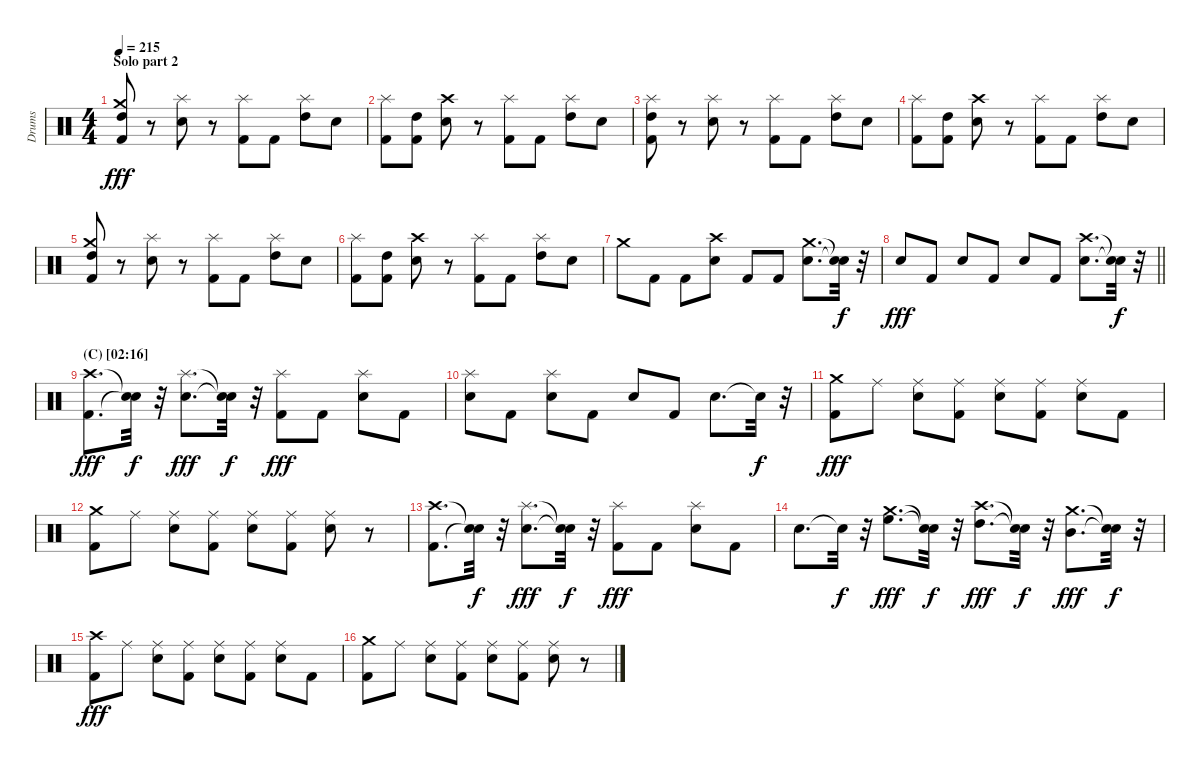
\track ("Drums" "Drums") {instrument percussion}
\staff {score}
\articulation defaults
\ts (4 4)
\section ("" "Solo part 2")
\tempo 215
\clef neutral
\ks c
("High Tom (hit)" "Crash medium (hit)" "Kick (hit) 2").8{dy fff} r.8 ("Splash (hit)" "Electric Snare (hit)").8 r.8 ("Splash (hit)" "Kick (hit) 2").8 "Kick (hit) 2".8 ("Splash (hit)" "High Tom (hit)").8 "Electric Snare (hit)".8 |
("Kick (hit) 2" "Splash (hit)").8 ("Kick (hit) 2" "High Tom (hit)").8 ("Crash high (hit)" "Electric Snare (hit)").8 r.8 ("Kick (hit) 2" "Splash (hit)").8 "Kick (hit) 2".8 ("Splash (hit)" "High Tom (hit)").8 "Electric Snare (hit)".8 |
("High Tom (hit)" "Splash (hit)" "Kick (hit) 2").8 r.8 ("Electric Snare (hit)" "Splash (hit)").8 r.8 ("Kick (hit) 2" "Splash (hit)").8 "Kick (hit) 2".8 ("Splash (hit)" "High Tom (hit)").8 "Electric Snare (hit)".8 |
("Splash (hit)" "Kick (hit) 2").8 ("Kick (hit) 2" "High Tom (hit)").8 ("Crash high (hit)" "Electric Snare (hit)").8 r.8 ("Splash (hit)" "Kick (hit) 2").8 "Kick (hit) 2".8 ("Splash (hit)" "High Tom (hit)").8 "Electric Snare (hit)".8 |
("Kick (hit) 2" "High Tom (hit)" "Crash medium (hit)").8 r.8 ("Splash (hit)" "Electric Snare (hit)").8 r.8 ("Splash (hit)" "Kick (hit) 2").8 "Kick (hit) 2".8 ("Splash (hit)" "High Tom (hit)").8 "Electric Snare (hit)".8 |
("Splash (hit)" "Kick (hit) 2").8 ("Kick (hit) 2" "High Tom (hit)").8 ("Crash high (hit)" "Electric Snare (hit)").8 r.8 ("Splash (hit)" "Kick (hit) 2").8 "Kick (hit) 2".8 ("High Tom (hit)" "Splash (hit)").8 "Electric Snare (hit)".8 |
"Crash medium (hit)".8 "Kick (hit) 2".8 "Kick (hit) 2".8 ("Crash high (hit)" "Electric Snare (hit)").8 "Kick (hit) 2".8 "Kick (hit) 2".8 ("Crash medium (hit)" "Electric Snare (hit)").8{d} ("Snare (hit)"{t} "Snare (hit)"{t}).32{dy f} r.32 |
\barLineRight lightlight "Snare (hit) 2".8{dy fff} "Kick (hit) 2".8 "Snare (hit) 2".8 "Kick (hit) 2".8 "Snare (hit) 2".8 "Kick (hit) 2".8
("Electric Snare (hit)" "Crash high (hit)").8{d} ("Snare (hit)"{t} "Snare (hit)"{t}).32{dy f} r.32 |
\section ("" "(C) [02:16]")
("Crash high (hit)" "Kick (hit) 2").8{d dy fff} ("Snare (hit)"{t} "Snare (hit)"{t}).32{dy f} r.32 ("Electric Snare (hit)" "Splash (hit)").8{d dy fff} ("Snare (hit)"{t} "Snare (hit)"{t}).32{dy f} r.32 ("Kick (hit) 2" "Splash (hit)").8{dy fff} "Kick (hit) 2".8 ("Electric Snare (hit)" "Splash (hit)").8 "Kick (hit) 2".8 |
("Splash (hit)" "Electric Snare (hit)").8 "Kick (hit) 2".8 ("Electric Snare (hit)" "Splash (hit)").8 "Kick (hit) 2".8 "Electric Snare (hit)".8 "Kick (hit) 2".8 "Electric Snare (hit)".8{d} "Snare (hit)"{t}.32{dy f} r.32 |
("Kick (hit) 2" "Crash medium (hit)").8{dy fff} "Ride (middle)".8 ("Electric Snare (hit)" "Ride (middle)").8 ("Ride (middle)" "Kick (hit) 2").8 ("Ride (middle)" "Electric Snare (hit)").8 ("Ride (middle)" "Kick (hit) 2").8 ("Electric Snare (hit)" "Ride (middle)").8 "Kick (hit) 2".8 |
("Crash medium (hit)" "Kick (hit) 2").8 "Ride (middle)".8 ("Electric Snare (hit)" "Ride (middle)").8 ("Kick (hit) 2" "Ride (middle)").8 ("Electric Snare (hit)" "Ride (middle)").8 ("Kick (hit) 2" "Ride (middle)").8 ("Ride (middle)" "Electric Snare (hit)").8 r.8 |
("Kick (hit) 2" "Crash high (hit)").8{d} ("Snare (hit)"{t} "Snare (hit)"{t}).32{dy f} r.32 ("Electric Snare (hit)" "Splash (hit)").8{d dy fff} ("Snare (hit)"{t} "Snare (hit)"{t}).32{dy f} r.32 ("Splash (hit)" "Kick (hit) 2").8{dy fff} "Kick (hit) 2".8 ("Electric Snare (hit)" "Splash (hit)").8 "Kick (hit) 2".8 |
"Electric Snare (hit)".8{d} "Snare (hit)"{t}.32{dy f} r.32 ("High Floor Tom (hit)" "Crash medium (hit)").8{d dy fff} ("Snare (hit)"{t} "Snare (hit)"{t}).32{dy f} r.32 ("High Tom (hit)" "Crash high (hit)").8{d dy fff} ("Snare (hit)"{t} "Snare (hit)"{t}).32{dy f} r.32 ("Mid Tom (hit)" "Crash medium (hit)").8{d dy fff} ("Snare (hit)"{t} "Snare (hit)"{t}).32{dy f} r.32 |
("Kick (hit) 2" "Crash high (hit)").8{dy fff} "Ride (middle)".8 ("Electric Snare (hit)" "Ride (middle)").8 ("Kick (hit) 2" "Ride (middle)").8 ("Ride (middle)" "Electric Snare (hit)").8 ("Kick (hit) 2" "Ride (middle)").8 ("Electric Snare (hit)" "Ride (middle)").8 "Kick (hit) 2".8 |
("Kick (hit) 2" "Crash medium (hit)").8 "Ride (middle)".8 ("Ride (middle)" "Electric Snare (hit)").8 ("Kick (hit) 2" "Ride (middle)").8 ("Electric Snare (hit)" "Ride (middle)").8 ("Ride (middle)" "Kick (hit) 2").8 ("Ride (middle)" "Electric Snare (hit)").8 r.8
